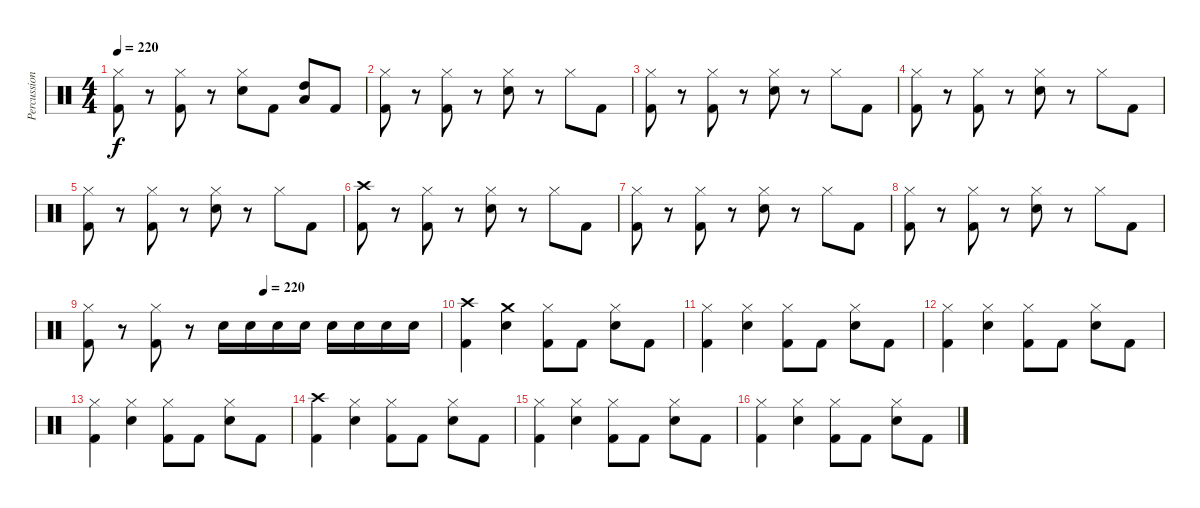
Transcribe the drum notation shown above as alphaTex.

\track ("Percussion" "Percussion") {instrument percussion}
\staff {score}
\articulation defaults
\ts (4 4)
\tempo 220
\clef neutral
\ks c
("Hi-Hat (closed)" "Kick (hit) 2").8{dy f} r.8 ("Hi-Hat (closed)" "Kick (hit) 2").8 r.8 ("Hi-Hat (closed)" "Electric Snare (hit)").8 "Kick (hit) 2".8 ("Low Tom (hit)" "High Tom (hit)").8 "Kick (hit) 2".8 |
("Hi-Hat (closed)" "Kick (hit) 2").8 r.8 ("Hi-Hat (closed)" "Kick (hit) 2").8 r.8 ("Hi-Hat (closed)" "Electric Snare (hit)").8 r.8 "Hi-Hat (closed)".8 "Kick (hit) 2".8 |
("Hi-Hat (closed)" "Kick (hit) 2").8 r.8 ("Hi-Hat (closed)" "Kick (hit) 2").8 r.8 ("Hi-Hat (closed)" "Electric Snare (hit)").8 r.8 "Hi-Hat (closed)".8 "Kick (hit) 2".8 |
("Hi-Hat (closed)" "Kick (hit) 2").8 r.8 ("Hi-Hat (closed)" "Kick (hit) 2").8 r.8 ("Hi-Hat (closed)" "Electric Snare (hit)").8 r.8 "Hi-Hat (closed)".8 "Kick (hit) 2".8 |
("Hi-Hat (closed)" "Kick (hit) 2").8 r.8 ("Hi-Hat (closed)" "Kick (hit) 2").8 r.8 ("Hi-Hat (closed)" "Electric Snare (hit)").8 r.8 "Hi-Hat (closed)".8 "Kick (hit) 2".8 |
("Crash high (hit)" "Kick (hit) 2").8 r.8 ("Hi-Hat (closed)" "Kick (hit) 2").8 r.8 ("Hi-Hat (closed)" "Electric Snare (hit)").8 r.8 "Hi-Hat (closed)".8 "Kick (hit) 2".8 |
("Hi-Hat (closed)" "Kick (hit) 2").8 r.8 ("Hi-Hat (closed)" "Kick (hit) 2").8 r.8 ("Hi-Hat (closed)" "Electric Snare (hit)").8 r.8 "Hi-Hat (closed)".8 "Kick (hit) 2".8 |
("Hi-Hat (closed)" "Kick (hit) 2").8 r.8 ("Hi-Hat (closed)" "Kick (hit) 2").8 r.8 ("Hi-Hat (closed)" "Electric Snare (hit)").8 r.8 "Hi-Hat (closed)".8 "Kick (hit) 2".8 |
\tempo (220 0.5)
("Hi-Hat (closed)" "Kick (hit) 2").8 r.8 ("Hi-Hat (closed)" "Kick (hit) 2").8 r.8 "Electric Snare (hit)".16 "Electric Snare (hit)".16 "Electric Snare (hit)".16 "Electric Snare (hit)".16 "Electric Snare (hit)".16 "Electric Snare (hit)".16 "Electric Snare (hit)".16 "Electric Snare (hit)".16 |
("Crash high (hit)" "Kick (hit) 2").4 ("Crash medium (hit)" "Electric Snare (hit)").4 ("Hi-Hat (closed)" "Kick (hit) 2").8 "Kick (hit) 2".8 ("Hi-Hat (closed)" "Electric Snare (hit)").8 "Kick (hit) 2".8 |
("Hi-Hat (closed)" "Kick (hit) 2").4 ("Hi-Hat (closed)" "Electric Snare (hit)").4 ("Hi-Hat (closed)" "Kick (hit) 2").8 "Kick (hit) 2".8 ("Hi-Hat (closed)" "Electric Snare (hit)").8 "Kick (hit) 2".8 |
("Hi-Hat (closed)" "Kick (hit) 2").4 ("Hi-Hat (closed)" "Electric Snare (hit)").4 ("Hi-Hat (closed)" "Kick (hit) 2").8 "Kick (hit) 2".8 ("Hi-Hat (closed)" "Electric Snare (hit)").8 "Kick (hit) 2".8 |
("Hi-Hat (closed)" "Kick (hit) 2").4 ("Hi-Hat (closed)" "Electric Snare (hit)").4 ("Hi-Hat (closed)" "Kick (hit) 2").8 "Kick (hit) 2".8 ("Hi-Hat (closed)" "Electric Snare (hit)").8 "Kick (hit) 2".8 |
("Crash high (hit)" "Kick (hit) 2").4 ("Hi-Hat (closed)" "Electric Snare (hit)").4 ("Hi-Hat (closed)" "Kick (hit) 2").8 "Kick (hit) 2".8 ("Hi-Hat (closed)" "Electric Snare (hit)").8 "Kick (hit) 2".8 |
("Hi-Hat (closed)" "Kick (hit) 2").4 ("Hi-Hat (closed)" "Electric Snare (hit)").4 ("Hi-Hat (closed)" "Kick (hit) 2").8 "Kick (hit) 2".8 ("Hi-Hat (closed)" "Electric Snare (hit)").8 "Kick (hit) 2".8 |
("Hi-Hat (closed)" "Kick (hit) 2").4 ("Hi-Hat (closed)" "Electric Snare (hit)").4 ("Hi-Hat (closed)" "Kick (hit) 2").8 "Kick (hit) 2".8 ("Hi-Hat (closed)" "Electric Snare (hit)").8 "Kick (hit) 2".8
